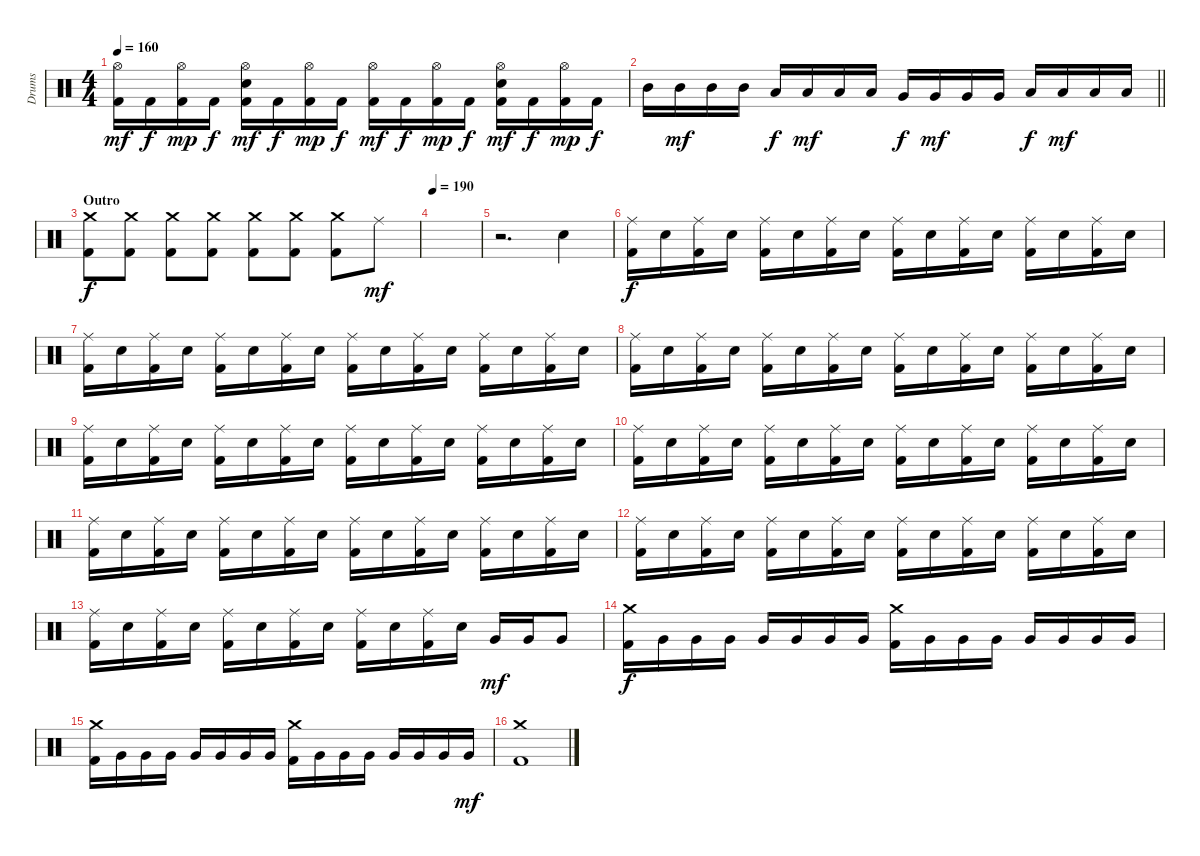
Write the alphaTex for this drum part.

\track ("Drums" "Drums") {instrument percussion}
\staff {score}
\articulation defaults
\ts (4 4)
\tempo 160
\clef neutral
\ks c
("Hi-Hat (open)" "Kick (hit) 2").16{dy mf} "Kick (hit) 2".16{dy f} ("Hi-Hat (open)" "Kick (hit) 2").16{dy mp} "Kick (hit) 2".16{dy f} ("Hi-Hat (open)" "Snare (hit) 2" "Kick (hit) 2").16{dy mf} "Kick (hit) 2".16{dy f} ("Hi-Hat (open)" "Kick (hit) 2").16{dy mp} "Kick (hit) 2".16{dy f} ("Hi-Hat (open)" "Kick (hit) 2").16{dy mf} "Kick (hit) 2".16{dy f} ("Hi-Hat (open)" "Kick (hit) 2").16{dy mp} "Kick (hit) 2".16{dy f} ("Hi-Hat (open)" "Snare (hit) 2" "Kick (hit) 2").16{dy mf} "Kick (hit) 2".16{dy f} ("Hi-Hat (open)" "Kick (hit) 2").16{dy mp} "Kick (hit) 2".16{dy f} |
\barLineRight lightlight "Mid Tom (hit)".16 "Mid Tom (hit)".16{dy mf} "Mid Tom (hit)".16 "Mid Tom (hit)".16 "Low Tom (hit)".16{dy f} "Low Tom (hit)".16{dy mf} "Low Tom (hit)".16 "Low Tom (hit)".16 "Very Low Tom (hit)".16{dy f} "Very Low Tom (hit)".16{dy mf} "Very Low Tom (hit)".16 "Very Low Tom (hit)".16 "Low Floor Tom (hit)".16{dy f} "Low Floor Tom (hit)".16{dy mf} "Low Floor Tom (hit)".16 "Low Floor Tom (hit)".16
|
\section ("" "Outro")
("Crash medium (hit)" "Kick (hit) 2").8{dy f} ("Crash medium (hit)" "Kick (hit) 2").8 ("Crash medium (hit)" "Kick (hit) 2").8 ("Crash medium (hit)" "Kick (hit) 2").8 ("Crash medium (hit)" "Kick (hit) 2").8 ("Crash medium (hit)" "Kick (hit) 2").8 ("Crash medium (hit)" "Kick (hit) 2").8 "Ride (middle)".8{dy mf} |
\tempo 190
|
r.2{d} "Snare (hit) 2".4 |
("Ride (middle)" "Kick (hit) 2").16{dy f} "Snare (hit) 2".16 ("Ride (middle)" "Kick (hit) 2").16 "Snare (hit) 2".16 ("Ride (middle)" "Kick (hit) 2").16 "Snare (hit) 2".16 ("Ride (middle)" "Kick (hit) 2").16 "Snare (hit) 2".16 ("Ride (middle)" "Kick (hit) 2").16 "Snare (hit) 2".16 ("Ride (middle)" "Kick (hit) 2").16 "Snare (hit) 2".16 ("Ride (middle)" "Kick (hit) 2").16 "Snare (hit) 2".16 ("Ride (middle)" "Kick (hit) 2").16 "Snare (hit) 2".16 |
("Ride (middle)" "Kick (hit) 2").16 "Snare (hit) 2".16 ("Ride (middle)" "Kick (hit) 2").16 "Snare (hit) 2".16 ("Ride (middle)" "Kick (hit) 2").16 "Snare (hit) 2".16 ("Ride (middle)" "Kick (hit) 2").16 "Snare (hit) 2".16 ("Ride (middle)" "Kick (hit) 2").16 "Snare (hit) 2".16 ("Ride (middle)" "Kick (hit) 2").16 "Snare (hit) 2".16 ("Ride (middle)" "Kick (hit) 2").16 "Snare (hit) 2".16 ("Ride (middle)" "Kick (hit) 2").16 "Snare (hit) 2".16 |
("Ride (middle)" "Kick (hit) 2").16 "Snare (hit) 2".16 ("Ride (middle)" "Kick (hit) 2").16 "Snare (hit) 2".16 ("Ride (middle)" "Kick (hit) 2").16 "Snare (hit) 2".16 ("Ride (middle)" "Kick (hit) 2").16 "Snare (hit) 2".16 ("Ride (middle)" "Kick (hit) 2").16 "Snare (hit) 2".16 ("Ride (middle)" "Kick (hit) 2").16 "Snare (hit) 2".16 ("Ride (middle)" "Kick (hit) 2").16 "Snare (hit) 2".16 ("Ride (middle)" "Kick (hit) 2").16 "Snare (hit) 2".16 |
("Ride (middle)" "Kick (hit) 2").16 "Snare (hit) 2".16 ("Ride (middle)" "Kick (hit) 2").16 "Snare (hit) 2".16 ("Ride (middle)" "Kick (hit) 2").16 "Snare (hit) 2".16 ("Ride (middle)" "Kick (hit) 2").16 "Snare (hit) 2".16 ("Ride (middle)" "Kick (hit) 2").16 "Snare (hit) 2".16 ("Ride (middle)" "Kick (hit) 2").16 "Snare (hit) 2".16 ("Ride (middle)" "Kick (hit) 2").16 "Snare (hit) 2".16 ("Ride (middle)" "Kick (hit) 2").16 "Snare (hit) 2".16 |
("Ride (middle)" "Kick (hit) 2").16 "Snare (hit) 2".16 ("Ride (middle)" "Kick (hit) 2").16 "Snare (hit) 2".16 ("Ride (middle)" "Kick (hit) 2").16 "Snare (hit) 2".16 ("Ride (middle)" "Kick (hit) 2").16 "Snare (hit) 2".16 ("Ride (middle)" "Kick (hit) 2").16 "Snare (hit) 2".16 ("Ride (middle)" "Kick (hit) 2").16 "Snare (hit) 2".16 ("Ride (middle)" "Kick (hit) 2").16 "Snare (hit) 2".16 ("Ride (middle)" "Kick (hit) 2").16 "Snare (hit) 2".16 |
("Ride (middle)" "Kick (hit) 2").16 "Snare (hit) 2".16 ("Ride (middle)" "Kick (hit) 2").16 "Snare (hit) 2".16 ("Ride (middle)" "Kick (hit) 2").16 "Snare (hit) 2".16 ("Ride (middle)" "Kick (hit) 2").16 "Snare (hit) 2".16 ("Ride (middle)" "Kick (hit) 2").16 "Snare (hit) 2".16 ("Ride (middle)" "Kick (hit) 2").16 "Snare (hit) 2".16 ("Ride (middle)" "Kick (hit) 2").16 "Snare (hit) 2".16 ("Ride (middle)" "Kick (hit) 2").16 "Snare (hit) 2".16 |
("Ride (middle)" "Kick (hit) 2").16 "Snare (hit) 2".16 ("Ride (middle)" "Kick (hit) 2").16 "Snare (hit) 2".16 ("Ride (middle)" "Kick (hit) 2").16 "Snare (hit) 2".16 ("Ride (middle)" "Kick (hit) 2").16 "Snare (hit) 2".16 ("Ride (middle)" "Kick (hit) 2").16 "Snare (hit) 2".16 ("Ride (middle)" "Kick (hit) 2").16 "Snare (hit) 2".16 ("Ride (middle)" "Kick (hit) 2").16 "Snare (hit) 2".16 ("Ride (middle)" "Kick (hit) 2").16 "Snare (hit) 2".16 |
("Ride (middle)" "Kick (hit) 2").16 "Snare (hit) 2".16 ("Ride (middle)" "Kick (hit) 2").16 "Snare (hit) 2".16 ("Ride (middle)" "Kick (hit) 2").16 "Snare (hit) 2".16 ("Ride (middle)" "Kick (hit) 2").16 "Snare (hit) 2".16 ("Ride (middle)" "Kick (hit) 2").16 "Snare (hit) 2".16 ("Ride (middle)" "Kick (hit) 2").16 "Snare (hit) 2".16 "Very Low Tom (hit)".16{dy mf} "Very Low Tom (hit)".16 "Very Low Tom (hit)".8 |
("Crash medium (hit)" "Kick (hit) 2").16{dy f} "Very Low Tom (hit)".16 "Very Low Tom (hit)".16 "Very Low Tom (hit)".16 "Very Low Tom (hit)".16 "Very Low Tom (hit)".16 "Very Low Tom (hit)".16 "Very Low Tom (hit)".16 ("Crash medium (hit)" "Kick (hit) 2").16 "Very Low Tom (hit)".16 "Very Low Tom (hit)".16 "Very Low Tom (hit)".16 "Very Low Tom (hit)".16 "Very Low Tom (hit)".16 "Very Low Tom (hit)".16 "Very Low Tom (hit)".16 |
("Crash medium (hit)" "Kick (hit) 2").16 "Very Low Tom (hit)".16 "Very Low Tom (hit)".16 "Very Low Tom (hit)".16 "Very Low Tom (hit)".16 "Very Low Tom (hit)".16 "Very Low Tom (hit)".16 "Very Low Tom (hit)".16 ("Crash medium (hit)" "Kick (hit) 2").16 "Very Low Tom (hit)".16 "Very Low Tom (hit)".16 "Very Low Tom (hit)".16 "Very Low Tom (hit)".16 "Very Low Tom (hit)".16 "Very Low Tom (hit)".16 "Very Low Tom (hit)".16{dy mf} |
("Crash medium (hit)" "Kick (hit) 2").1
